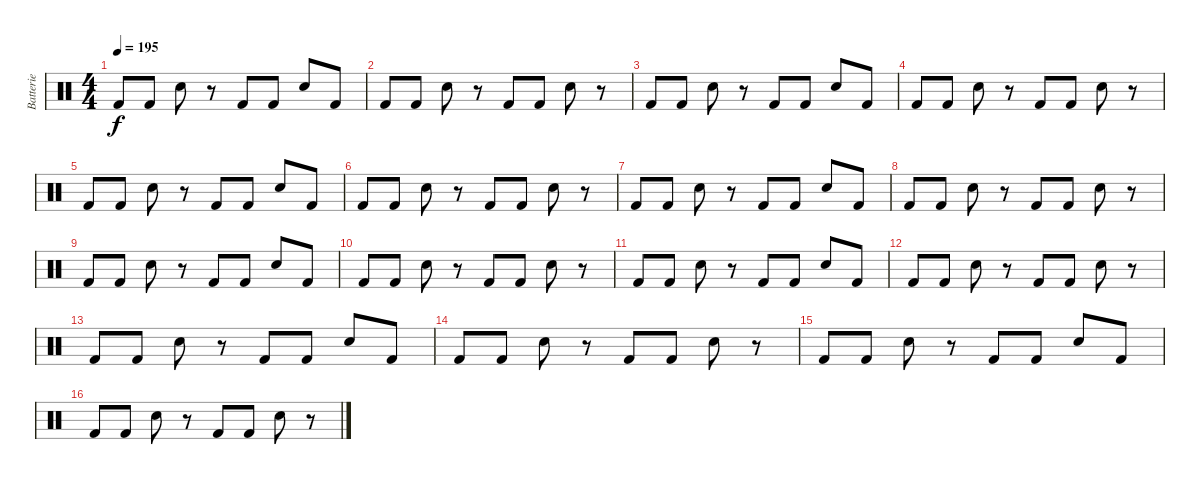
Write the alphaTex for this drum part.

\track ("Batterie" "Batterie") {instrument percussion}
\staff {score}
\articulation defaults
\ts (4 4)
\tempo 195
\clef neutral
\ks c "Kick (hit) 2".8{dy f} "Kick (hit) 2".8 "Electric Snare (hit)".8
r.8 "Kick (hit) 2".8 "Kick (hit) 2".8 "Electric Snare (hit)".8 "Kick (hit) 2".8 |
"Kick (hit) 2".8 "Kick (hit) 2".8 "Electric Snare (hit)".8 r.8 "Kick (hit) 2".8 "Kick (hit) 2".8 "Electric Snare (hit)".8 r.8 |
"Kick (hit) 2".8 "Kick (hit) 2".8 "Electric Snare (hit)".8 r.8 "Kick (hit) 2".8 "Kick (hit) 2".8 "Electric Snare (hit)".8 "Kick (hit) 2".8 |
"Kick (hit) 2".8 "Kick (hit) 2".8 "Electric Snare (hit)".8 r.8 "Kick (hit) 2".8 "Kick (hit) 2".8 "Electric Snare (hit)".8 r.8 |
"Kick (hit) 2".8 "Kick (hit) 2".8 "Electric Snare (hit)".8 r.8 "Kick (hit) 2".8 "Kick (hit) 2".8 "Electric Snare (hit)".8 "Kick (hit) 2".8 |
"Kick (hit) 2".8 "Kick (hit) 2".8 "Electric Snare (hit)".8 r.8 "Kick (hit) 2".8 "Kick (hit) 2".8 "Electric Snare (hit)".8 r.8 |
"Kick (hit) 2".8 "Kick (hit) 2".8 "Electric Snare (hit)".8 r.8 "Kick (hit) 2".8 "Kick (hit) 2".8 "Electric Snare (hit)".8 "Kick (hit) 2".8 |
"Kick (hit) 2".8 "Kick (hit) 2".8 "Electric Snare (hit)".8 r.8 "Kick (hit) 2".8 "Kick (hit) 2".8 "Electric Snare (hit)".8 r.8 |
"Kick (hit) 2".8 "Kick (hit) 2".8 "Electric Snare (hit)".8 r.8 "Kick (hit) 2".8 "Kick (hit) 2".8 "Electric Snare (hit)".8 "Kick (hit) 2".8 |
"Kick (hit) 2".8 "Kick (hit) 2".8 "Electric Snare (hit)".8 r.8 "Kick (hit) 2".8 "Kick (hit) 2".8 "Electric Snare (hit)".8 r.8 |
"Kick (hit) 2".8 "Kick (hit) 2".8 "Electric Snare (hit)".8 r.8 "Kick (hit) 2".8 "Kick (hit) 2".8 "Electric Snare (hit)".8 "Kick (hit) 2".8 |
"Kick (hit) 2".8 "Kick (hit) 2".8 "Electric Snare (hit)".8 r.8 "Kick (hit) 2".8 "Kick (hit) 2".8 "Electric Snare (hit)".8 r.8 |
"Kick (hit) 2".8 "Kick (hit) 2".8 "Electric Snare (hit)".8 r.8 "Kick (hit) 2".8 "Kick (hit) 2".8 "Electric Snare (hit)".8 "Kick (hit) 2".8 |
"Kick (hit) 2".8 "Kick (hit) 2".8 "Electric Snare (hit)".8 r.8 "Kick (hit) 2".8 "Kick (hit) 2".8 "Electric Snare (hit)".8 r.8 |
"Kick (hit) 2".8 "Kick (hit) 2".8 "Electric Snare (hit)".8 r.8 "Kick (hit) 2".8 "Kick (hit) 2".8 "Electric Snare (hit)".8 "Kick (hit) 2".8 |
"Kick (hit) 2".8 "Kick (hit) 2".8 "Electric Snare (hit)".8 r.8 "Kick (hit) 2".8 "Kick (hit) 2".8 "Electric Snare (hit)".8 r.8
